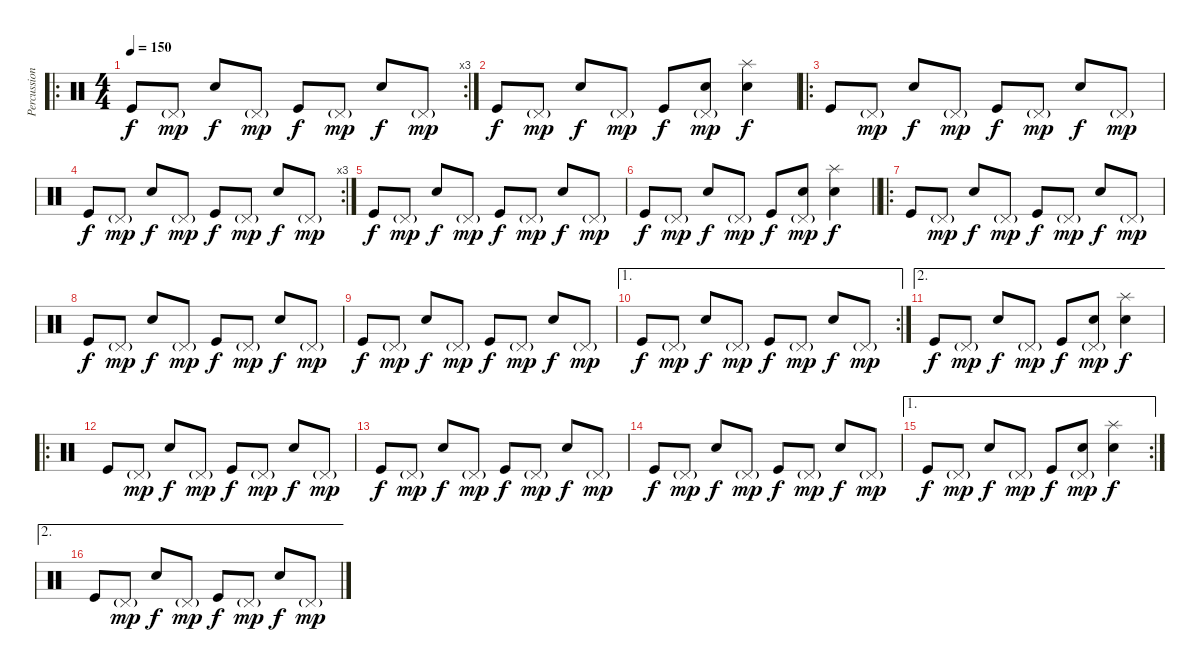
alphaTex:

\track ("Percussion" "Percussion") {instrument percussion}
\staff {score}
\articulation defaults
\ro
\rc 3
\ts (4 4)
\tempo 150
\clef neutral
\ks c "Kick (hit)".8{dy f} "Pedal Hi-Hat (hit)"{g}.8{dy mp} "Snare (hit) 2".8{dy f} "Pedal Hi-Hat (hit)"{g}.8{dy mp} "Kick (hit)".8{dy f} "Pedal Hi-Hat (hit)"{g}.8{dy mp} "Snare (hit) 2".8{dy f} "Pedal Hi-Hat (hit)"{g}.8{dy mp}
|
"Kick (hit)".8{dy f} "Pedal Hi-Hat (hit)"{g}.8{dy mp} "Snare (hit) 2".8{dy f} "Pedal Hi-Hat (hit)"{g}.8{dy mp} "Kick (hit)".8{dy f} ("Pedal Hi-Hat (hit)"{g} "Snare (hit) 2").8{dy mp} ("Splash (hit)" "Snare (hit) 2").4{dy f} |
\ro "Kick (hit)".8 "Pedal Hi-Hat (hit)"{g}.8{dy mp} "Snare (hit) 2".8{dy f} "Pedal Hi-Hat (hit)"{g}.8{dy mp} "Kick (hit)".8{dy f} "Pedal Hi-Hat (hit)"{g}.8{dy mp} "Snare (hit) 2".8{dy f} "Pedal Hi-Hat (hit)"{g}.8{dy mp}
|
\rc 3 "Kick (hit)".8{dy f} "Pedal Hi-Hat (hit)"{g}.8{dy mp} "Snare (hit) 2".8{dy f} "Pedal Hi-Hat (hit)"{g}.8{dy mp} "Kick (hit)".8{dy f} "Pedal Hi-Hat (hit)"{g}.8{dy mp} "Snare (hit) 2".8{dy f} "Pedal Hi-Hat (hit)"{g}.8{dy mp}
|
"Kick (hit)".8{dy f} "Pedal Hi-Hat (hit)"{g}.8{dy mp} "Snare (hit) 2".8{dy f} "Pedal Hi-Hat (hit)"{g}.8{dy mp} "Kick (hit)".8{dy f} "Pedal Hi-Hat (hit)"{g}.8{dy mp} "Snare (hit) 2".8{dy f} "Pedal Hi-Hat (hit)"{g}.8{dy mp} |
\barLineRight lightlight "Kick (hit)".8{dy f} "Pedal Hi-Hat (hit)"{g}.8{dy mp} "Snare (hit) 2".8{dy f} "Pedal Hi-Hat (hit)"{g}.8{dy mp} "Kick (hit)".8{dy f}
("Pedal Hi-Hat (hit)"{g} "Snare (hit) 2").8{dy mp} ("Splash (hit)" "Snare (hit) 2").4{dy f} |
\ro "Kick (hit)".8 "Pedal Hi-Hat (hit)"{g}.8{dy mp} "Snare (hit) 2".8{dy f} "Pedal Hi-Hat (hit)"{g}.8{dy mp} "Kick (hit)".8{dy f} "Pedal Hi-Hat (hit)"{g}.8{dy mp} "Snare (hit) 2".8{dy f} "Pedal Hi-Hat (hit)"{g}.8{dy mp}
|
"Kick (hit)".8{dy f} "Pedal Hi-Hat (hit)"{g}.8{dy mp} "Snare (hit) 2".8{dy f} "Pedal Hi-Hat (hit)"{g}.8{dy mp} "Kick (hit)".8{dy f} "Pedal Hi-Hat (hit)"{g}.8{dy mp} "Snare (hit) 2".8{dy f} "Pedal Hi-Hat (hit)"{g}.8{dy mp} |
"Kick (hit)".8{dy f} "Pedal Hi-Hat (hit)"{g}.8{dy mp} "Snare (hit) 2".8{dy f} "Pedal Hi-Hat (hit)"{g}.8{dy mp} "Kick (hit)".8{dy f} "Pedal Hi-Hat (hit)"{g}.8{dy mp} "Snare (hit) 2".8{dy f} "Pedal Hi-Hat (hit)"{g}.8{dy mp} |
\ae 1
\rc 2 "Kick (hit)".8{dy f} "Pedal Hi-Hat (hit)"{g}.8{dy mp} "Snare (hit) 2".8{dy f} "Pedal Hi-Hat (hit)"{g}.8{dy mp} "Kick (hit)".8{dy f} "Pedal Hi-Hat (hit)"{g}.8{dy mp} "Snare (hit) 2".8{dy f} "Pedal Hi-Hat (hit)"{g}.8{dy mp}
|
\ae 2 "Kick (hit)".8{dy f} "Pedal Hi-Hat (hit)"{g}.8{dy mp} "Snare (hit) 2".8{dy f} "Pedal Hi-Hat (hit)"{g}.8{dy mp} "Kick (hit)".8{dy f}
("Pedal Hi-Hat (hit)"{g} "Snare (hit) 2").8{dy mp} ("Splash (hit)" "Snare (hit) 2").4{dy f} |
\ro "Kick (hit)".8 "Pedal Hi-Hat (hit)"{g}.8{dy mp} "Snare (hit) 2".8{dy f} "Pedal Hi-Hat (hit)"{g}.8{dy mp} "Kick (hit)".8{dy f} "Pedal Hi-Hat (hit)"{g}.8{dy mp} "Snare (hit) 2".8{dy f} "Pedal Hi-Hat (hit)"{g}.8{dy mp}
|
"Kick (hit)".8{dy f} "Pedal Hi-Hat (hit)"{g}.8{dy mp} "Snare (hit) 2".8{dy f} "Pedal Hi-Hat (hit)"{g}.8{dy mp} "Kick (hit)".8{dy f} "Pedal Hi-Hat (hit)"{g}.8{dy mp} "Snare (hit) 2".8{dy f} "Pedal Hi-Hat (hit)"{g}.8{dy mp} |
"Kick (hit)".8{dy f} "Pedal Hi-Hat (hit)"{g}.8{dy mp} "Snare (hit) 2".8{dy f} "Pedal Hi-Hat (hit)"{g}.8{dy mp} "Kick (hit)".8{dy f} "Pedal Hi-Hat (hit)"{g}.8{dy mp} "Snare (hit) 2".8{dy f} "Pedal Hi-Hat (hit)"{g}.8{dy mp} |
\ae 1
\rc 2 "Kick (hit)".8{dy f} "Pedal Hi-Hat (hit)"{g}.8{dy mp} "Snare (hit) 2".8{dy f} "Pedal Hi-Hat (hit)"{g}.8{dy mp} "Kick (hit)".8{dy f}
("Pedal Hi-Hat (hit)"{g} "Snare (hit) 2").8{dy mp} ("Splash (hit)" "Snare (hit) 2").4{dy f} |
\ae 2 "Kick (hit)".8 "Pedal Hi-Hat (hit)"{g}.8{dy mp} "Snare (hit) 2".8{dy f} "Pedal Hi-Hat (hit)"{g}.8{dy mp} "Kick (hit)".8{dy f} "Pedal Hi-Hat (hit)"{g}.8{dy mp} "Snare (hit) 2".8{dy f} "Pedal Hi-Hat (hit)"{g}.8{dy mp}
